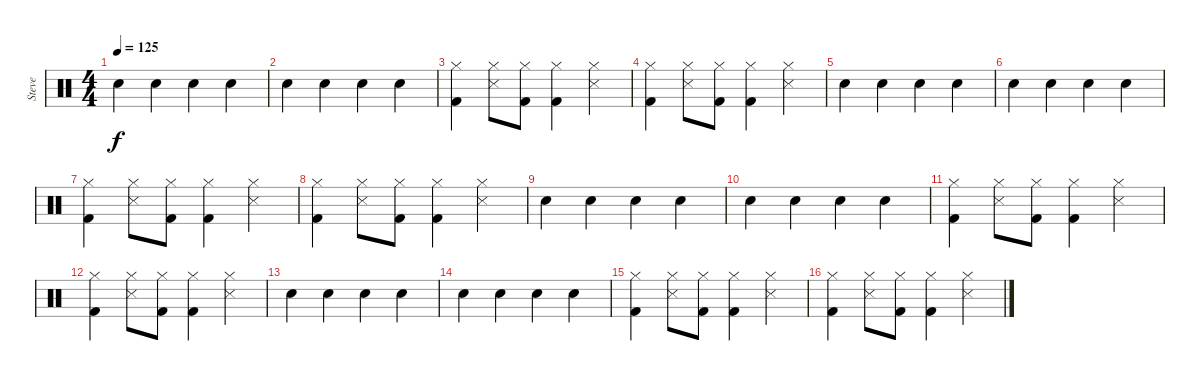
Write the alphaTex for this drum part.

\track ("Steve" "Steve") {instrument percussion}
\staff {score}
\articulation defaults
\ts (4 4)
\tempo 125
\clef neutral
\ks c "Snare (hit) 2".4{dy f} "Snare (hit) 2".4 "Snare (hit) 2".4 "Snare (hit) 2".4
|
"Snare (hit) 2".4 "Snare (hit) 2".4 "Snare (hit) 2".4 "Snare (hit) 2".4 |
("Hi-Hat (closed)" "Kick (hit) 2").4 ("Hi-Hat (closed)" "Snare (side stick) 3").8 ("Hi-Hat (closed)" "Kick (hit) 2").8 ("Hi-Hat (closed)" "Kick (hit) 2").4 ("Hi-Hat (closed)" "Snare (side stick) 3").4 |
("Hi-Hat (closed)" "Kick (hit) 2").4 ("Hi-Hat (closed)" "Snare (side stick) 3").8 ("Hi-Hat (closed)" "Kick (hit) 2").8 ("Hi-Hat (closed)" "Kick (hit) 2").4 ("Hi-Hat (closed)" "Snare (side stick) 3").4 |
"Snare (hit) 2".4 "Snare (hit) 2".4 "Snare (hit) 2".4 "Snare (hit) 2".4 |
"Snare (hit) 2".4 "Snare (hit) 2".4 "Snare (hit) 2".4 "Snare (hit) 2".4 |
("Hi-Hat (closed)" "Kick (hit) 2").4 ("Hi-Hat (closed)" "Snare (side stick) 3").8 ("Hi-Hat (closed)" "Kick (hit) 2").8 ("Hi-Hat (closed)" "Kick (hit) 2").4 ("Hi-Hat (closed)" "Snare (side stick) 3").4 |
("Hi-Hat (closed)" "Kick (hit) 2").4 ("Hi-Hat (closed)" "Snare (side stick) 3").8 ("Hi-Hat (closed)" "Kick (hit) 2").8 ("Hi-Hat (closed)" "Kick (hit) 2").4 ("Hi-Hat (closed)" "Snare (side stick) 3").4 |
"Snare (hit) 2".4 "Snare (hit) 2".4 "Snare (hit) 2".4 "Snare (hit) 2".4 |
"Snare (hit) 2".4 "Snare (hit) 2".4 "Snare (hit) 2".4 "Snare (hit) 2".4 |
("Hi-Hat (closed)" "Kick (hit) 2").4 ("Hi-Hat (closed)" "Snare (side stick) 3").8 ("Hi-Hat (closed)" "Kick (hit) 2").8 ("Hi-Hat (closed)" "Kick (hit) 2").4 ("Hi-Hat (closed)" "Snare (side stick) 3").4 |
("Hi-Hat (closed)" "Kick (hit) 2").4 ("Hi-Hat (closed)" "Snare (side stick) 3").8 ("Hi-Hat (closed)" "Kick (hit) 2").8 ("Hi-Hat (closed)" "Kick (hit) 2").4 ("Hi-Hat (closed)" "Snare (side stick) 3").4 |
"Snare (hit) 2".4 "Snare (hit) 2".4 "Snare (hit) 2".4 "Snare (hit) 2".4 |
"Snare (hit) 2".4 "Snare (hit) 2".4 "Snare (hit) 2".4 "Snare (hit) 2".4 |
("Hi-Hat (closed)" "Kick (hit) 2").4 ("Hi-Hat (closed)" "Snare (side stick) 3").8 ("Hi-Hat (closed)" "Kick (hit) 2").8 ("Hi-Hat (closed)" "Kick (hit) 2").4 ("Hi-Hat (closed)" "Snare (side stick) 3").4 |
("Hi-Hat (closed)" "Kick (hit) 2").4 ("Hi-Hat (closed)" "Snare (side stick) 3").8 ("Hi-Hat (closed)" "Kick (hit) 2").8 ("Hi-Hat (closed)" "Kick (hit) 2").4 ("Hi-Hat (closed)" "Snare (side stick) 3").4
